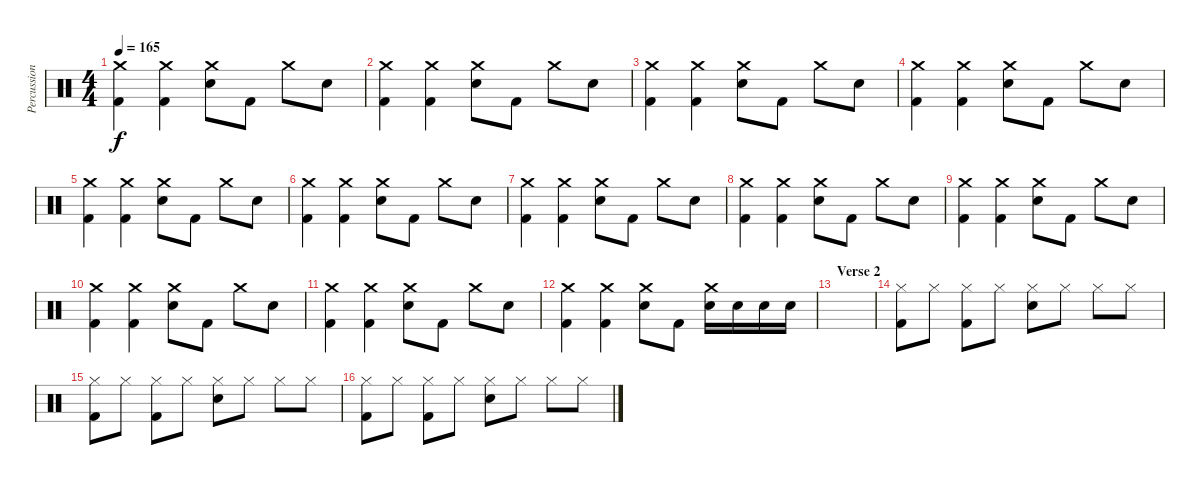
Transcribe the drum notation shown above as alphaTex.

\track ("Percussion" "Percussion") {instrument percussion}
\staff {score}
\articulation defaults
\ts (4 4)
\tempo 165
\clef neutral
\ks c
("Crash medium (hit)" "Kick (hit) 2").4{dy f} ("Crash medium (hit)" "Kick (hit) 2").4 ("Crash medium (hit)" "Snare (hit) 2").8 "Kick (hit) 2".8 "Crash medium (hit)".8 "Snare (hit) 2".8 |
("Crash medium (hit)" "Kick (hit) 2").4 ("Crash medium (hit)" "Kick (hit) 2").4 ("Crash medium (hit)" "Snare (hit) 2").8 "Kick (hit) 2".8 "Crash medium (hit)".8 "Snare (hit) 2".8 |
("Crash medium (hit)" "Kick (hit) 2").4 ("Crash medium (hit)" "Kick (hit) 2").4 ("Crash medium (hit)" "Snare (hit) 2").8 "Kick (hit) 2".8 "Crash medium (hit)".8 "Snare (hit) 2".8 |
("Crash medium (hit)" "Kick (hit) 2").4 ("Crash medium (hit)" "Kick (hit) 2").4 ("Crash medium (hit)" "Snare (hit) 2").8 "Kick (hit) 2".8 "Crash medium (hit)".8 "Snare (hit) 2".8 |
("Crash medium (hit)" "Kick (hit) 2").4 ("Crash medium (hit)" "Kick (hit) 2").4 ("Crash medium (hit)" "Snare (hit) 2").8 "Kick (hit) 2".8 "Crash medium (hit)".8 "Snare (hit) 2".8 |
("Crash medium (hit)" "Kick (hit) 2").4 ("Crash medium (hit)" "Kick (hit) 2").4 ("Crash medium (hit)" "Snare (hit) 2").8 "Kick (hit) 2".8 "Crash medium (hit)".8 "Snare (hit) 2".8 |
("Crash medium (hit)" "Kick (hit) 2").4 ("Crash medium (hit)" "Kick (hit) 2").4 ("Crash medium (hit)" "Snare (hit) 2").8 "Kick (hit) 2".8 "Crash medium (hit)".8 "Snare (hit) 2".8 |
("Crash medium (hit)" "Kick (hit) 2").4 ("Crash medium (hit)" "Kick (hit) 2").4 ("Crash medium (hit)" "Snare (hit) 2").8 "Kick (hit) 2".8 "Crash medium (hit)".8 "Snare (hit) 2".8 |
("Crash medium (hit)" "Kick (hit) 2").4 ("Crash medium (hit)" "Kick (hit) 2").4 ("Crash medium (hit)" "Snare (hit) 2").8 "Kick (hit) 2".8 "Crash medium (hit)".8 "Snare (hit) 2".8 |
("Crash medium (hit)" "Kick (hit) 2").4 ("Crash medium (hit)" "Kick (hit) 2").4 ("Crash medium (hit)" "Snare (hit) 2").8 "Kick (hit) 2".8 "Crash medium (hit)".8 "Snare (hit) 2".8 |
("Crash medium (hit)" "Kick (hit) 2").4 ("Crash medium (hit)" "Kick (hit) 2").4 ("Crash medium (hit)" "Snare (hit) 2").8 "Kick (hit) 2".8 "Crash medium (hit)".8 "Snare (hit) 2".8 |
("Crash medium (hit)" "Kick (hit) 2").4 ("Crash medium (hit)" "Kick (hit) 2").4 ("Crash medium (hit)" "Snare (hit) 2").8 "Kick (hit) 2".8 ("Crash medium (hit)" "Snare (hit) 2").16 "Snare (hit) 2".16 "Snare (hit) 2".16 "Snare (hit) 2".16 |
\section ("" "Verse 2")
|
("Hi-Hat (closed)" "Kick (hit) 2").8 "Hi-Hat (closed)".8 ("Hi-Hat (closed)" "Kick (hit) 2").8 "Hi-Hat (closed)".8 ("Hi-Hat (closed)" "Snare (hit) 2").8 "Hi-Hat (closed)".8 "Hi-Hat (closed)".8 "Hi-Hat (closed)".8 |
("Hi-Hat (closed)" "Kick (hit) 2").8 "Hi-Hat (closed)".8 ("Hi-Hat (closed)" "Kick (hit) 2").8 "Hi-Hat (closed)".8 ("Hi-Hat (closed)" "Snare (hit) 2").8 "Hi-Hat (closed)".8 "Hi-Hat (closed)".8 "Hi-Hat (closed)".8 |
("Hi-Hat (closed)" "Kick (hit) 2").8 "Hi-Hat (closed)".8 ("Hi-Hat (closed)" "Kick (hit) 2").8 "Hi-Hat (closed)".8 ("Hi-Hat (closed)" "Snare (hit) 2").8 "Hi-Hat (closed)".8 "Hi-Hat (closed)".8 "Hi-Hat (closed)".8
